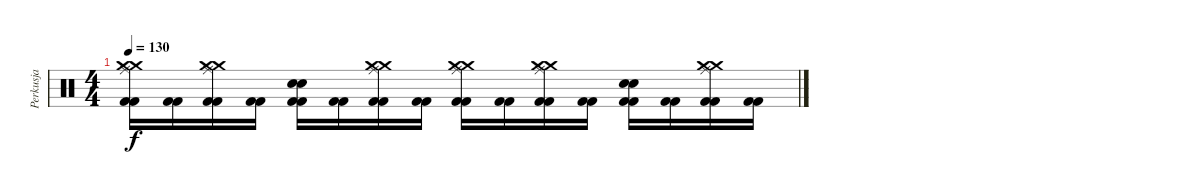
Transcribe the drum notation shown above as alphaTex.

\track ("Perkusja" "Perkusja") {instrument percussion}
\staff {score}
\articulation defaults
\ts (4 4)
\tempo 130
\clef neutral
\ks c
("Ride (middle)" "Crash medium (hit)" "Crash medium (hit)" "Kick (hit) 2" "Kick (hit) 2").16{dy f} ("Kick (hit) 2" "Kick (hit) 2").16 ("Ride (middle)" "Crash medium (hit)" "Crash medium (hit)" "Kick (hit) 2" "Kick (hit) 2").16 ("Kick (hit) 2" "Kick (hit) 2").16 ("Electric Snare (hit)" "Electric Snare (hit)" "Kick (hit) 2" "Kick (hit) 2").16 ("Kick (hit) 2" "Kick (hit) 2").16 ("Ride (middle)" "Crash medium (hit)" "Crash medium (hit)" "Kick (hit) 2" "Kick (hit) 2").16 ("Kick (hit) 2" "Kick (hit) 2").16 ("Ride (middle)" "Crash medium (hit)" "Crash medium (hit)" "Kick (hit) 2" "Kick (hit) 2").16 ("Kick (hit) 2" "Kick (hit) 2").16 ("Ride (middle)" "Crash medium (hit)" "Crash medium (hit)" "Kick (hit) 2" "Kick (hit) 2").16 ("Kick (hit) 2" "Kick (hit) 2").16 ("Electric Snare (hit)" "Electric Snare (hit)" "Kick (hit) 2" "Kick (hit) 2").16 ("Kick (hit) 2" "Kick (hit) 2").16 ("Ride (middle)" "Crash medium (hit)" "Crash medium (hit)" "Kick (hit) 2" "Kick (hit) 2").16 ("Kick (hit) 2" "Kick (hit) 2").16
